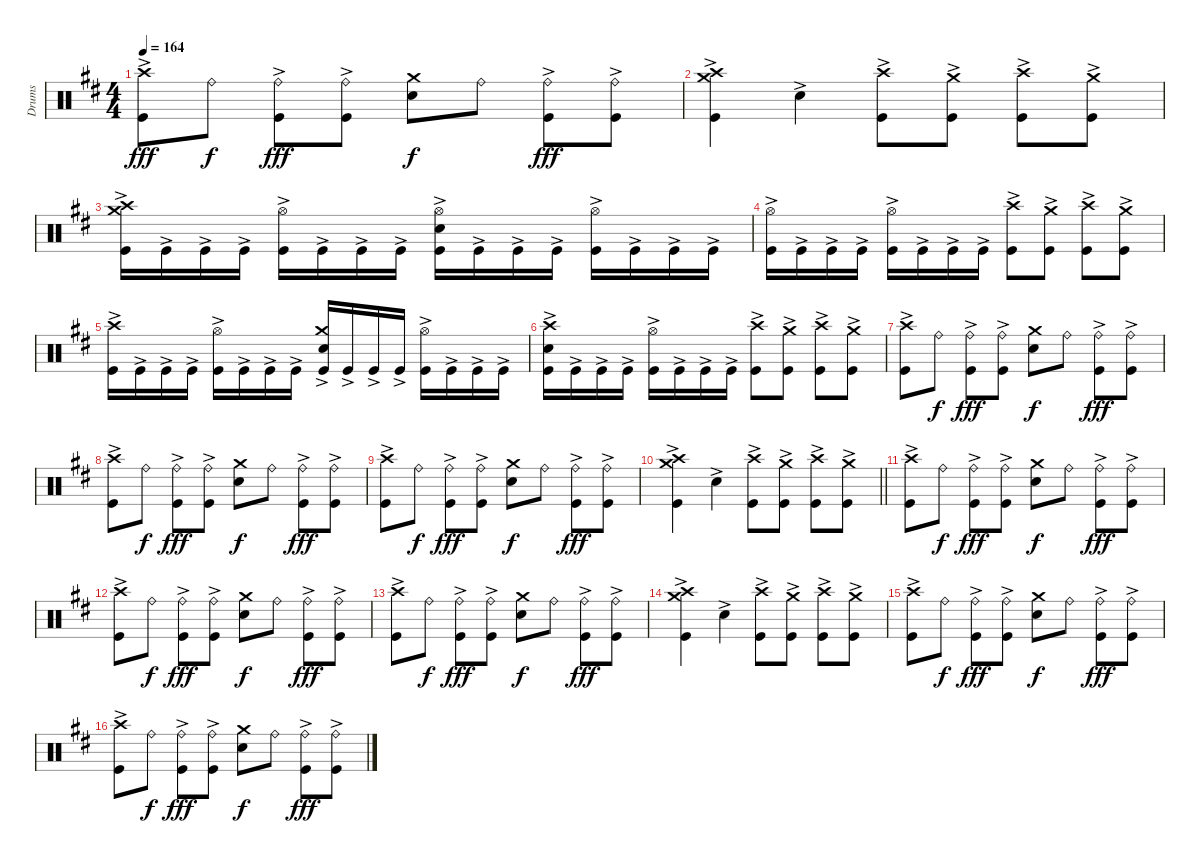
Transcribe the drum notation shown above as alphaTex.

\track ("Drums" "Drums") {instrument percussion}
\staff {score}
\articulation defaults
\ts (4 4)
\tempo 164
\clef neutral
\ks bminor
("Crash high (hit)" "Kick (hit)"{ac}).8{dy fff} "Ride (bell)".8{dy f} ("Ride (bell)" "Kick (hit)"{ac}).8{dy fff} ("Ride (bell)" "Kick (hit)"{ac}).8 ("Crash medium (hit)" "Snare (hit) 2").8{dy f} "Ride (bell)".8 ("Ride (bell)" "Kick (hit)"{ac}).8{dy fff} ("Ride (bell)" "Kick (hit)"{ac}).8 |
("Crash high (hit)" "Crash medium (hit)" "Kick (hit)"{ac}).4 "Snare (hit) 2"{ac}.4 ("Crash high (hit)" "Kick (hit)"{ac}).8 ("Crash medium (hit)" "Kick (hit)"{ac}).8 ("Crash high (hit)" "Kick (hit)"{ac}).8 ("Crash medium (hit)" "Kick (hit)"{ac}).8 |
("Crash high (hit)" "Crash medium (hit)" "Kick (hit)"{ac}).16 "Kick (hit)"{ac}.16 "Kick (hit)"{ac}.16 "Kick (hit)"{ac}.16 ("Hi-Hat (open)" "Kick (hit)"{ac}).16 "Kick (hit)"{ac}.16 "Kick (hit)"{ac}.16 "Kick (hit)"{ac}.16 ("Hi-Hat (open)" "Snare (hit) 2" "Kick (hit)"{ac}).16 "Kick (hit)"{ac}.16 "Kick (hit)"{ac}.16 "Kick (hit)"{ac}.16 ("Hi-Hat (open)" "Kick (hit)"{ac}).16 "Kick (hit)"{ac}.16 "Kick (hit)"{ac}.16 "Kick (hit)"{ac}.16 |
("Hi-Hat (open)" "Kick (hit)"{ac}).16 "Kick (hit)"{ac}.16 "Kick (hit)"{ac}.16 "Kick (hit)"{ac}.16 ("Hi-Hat (open)" "Kick (hit)"{ac}).16 "Kick (hit)"{ac}.16 "Kick (hit)"{ac}.16 "Kick (hit)"{ac}.16 ("Crash high (hit)" "Kick (hit)"{ac}).8 ("Crash medium (hit)" "Kick (hit)"{ac}).8 ("Crash high (hit)" "Kick (hit)"{ac}).8 ("Crash medium (hit)" "Kick (hit)"{ac}).8 |
("Crash high (hit)" "Kick (hit)"{ac}).16 "Kick (hit)"{ac}.16 "Kick (hit)"{ac}.16 "Kick (hit)"{ac}.16 ("Hi-Hat (open)" "Kick (hit)"{ac}).16 "Kick (hit)"{ac}.16 "Kick (hit)"{ac}.16 "Kick (hit)"{ac}.16 ("Crash medium (hit)" "Snare (hit) 2" "Kick (hit)"{ac}).16 "Kick (hit)"{ac}.16 "Kick (hit)"{ac}.16 "Kick (hit)"{ac}.16 ("Hi-Hat (open)" "Kick (hit)"{ac}).16 "Kick (hit)"{ac}.16 "Kick (hit)"{ac}.16 "Kick (hit)"{ac}.16 |
("Crash high (hit)" "Snare (hit) 2" "Kick (hit)"{ac}).16 "Kick (hit)"{ac}.16 "Kick (hit)"{ac}.16 "Kick (hit)"{ac}.16 ("Hi-Hat (open)" "Kick (hit)"{ac}).16 "Kick (hit)"{ac}.16 "Kick (hit)"{ac}.16 "Kick (hit)"{ac}.16 ("Crash high (hit)" "Kick (hit)"{ac}).8 ("Crash medium (hit)" "Kick (hit)"{ac}).8 ("Crash high (hit)" "Kick (hit)"{ac}).8 ("Crash medium (hit)" "Kick (hit)"{ac}).8 |
("Crash high (hit)" "Kick (hit)"{ac}).8 "Ride (bell)".8{dy f} ("Ride (bell)" "Kick (hit)"{ac}).8{dy fff} ("Ride (bell)" "Kick (hit)"{ac}).8 ("Crash medium (hit)" "Snare (hit) 2").8{dy f} "Ride (bell)".8 ("Ride (bell)" "Kick (hit)"{ac}).8{dy fff} ("Ride (bell)" "Kick (hit)"{ac}).8 |
("Crash high (hit)" "Kick (hit)"{ac}).8 "Ride (bell)".8{dy f} ("Ride (bell)" "Kick (hit)"{ac}).8{dy fff} ("Ride (bell)" "Kick (hit)"{ac}).8 ("Crash medium (hit)" "Snare (hit) 2").8{dy f} "Ride (bell)".8 ("Ride (bell)" "Kick (hit)"{ac}).8{dy fff} ("Ride (bell)" "Kick (hit)"{ac}).8 |
("Crash high (hit)" "Kick (hit)"{ac}).8 "Ride (bell)".8{dy f} ("Ride (bell)" "Kick (hit)"{ac}).8{dy fff} ("Ride (bell)" "Kick (hit)"{ac}).8 ("Crash medium (hit)" "Snare (hit) 2").8{dy f} "Ride (bell)".8 ("Ride (bell)" "Kick (hit)"{ac}).8{dy fff} ("Ride (bell)" "Kick (hit)"{ac}).8 |
\barLineRight lightlight
("Crash high (hit)" "Crash medium (hit)" "Kick (hit)"{ac}).4 "Snare (hit) 2"{ac}.4 ("Crash high (hit)" "Kick (hit)"{ac}).8 ("Crash medium (hit)" "Kick (hit)"{ac}).8 ("Crash high (hit)" "Kick (hit)"{ac}).8 ("Crash medium (hit)" "Kick (hit)"{ac}).8 |
("Crash high (hit)" "Kick (hit)"{ac}).8 "Ride (bell)".8{dy f} ("Ride (bell)" "Kick (hit)"{ac}).8{dy fff} ("Ride (bell)" "Kick (hit)"{ac}).8 ("Crash medium (hit)" "Snare (hit) 2").8{dy f} "Ride (bell)".8 ("Ride (bell)" "Kick (hit)"{ac}).8{dy fff} ("Ride (bell)" "Kick (hit)"{ac}).8 |
("Crash high (hit)" "Kick (hit)"{ac}).8 "Ride (bell)".8{dy f} ("Ride (bell)" "Kick (hit)"{ac}).8{dy fff} ("Ride (bell)" "Kick (hit)"{ac}).8 ("Crash medium (hit)" "Snare (hit) 2").8{dy f} "Ride (bell)".8 ("Ride (bell)" "Kick (hit)"{ac}).8{dy fff} ("Ride (bell)" "Kick (hit)"{ac}).8 |
("Crash high (hit)" "Kick (hit)"{ac}).8 "Ride (bell)".8{dy f} ("Ride (bell)" "Kick (hit)"{ac}).8{dy fff} ("Ride (bell)" "Kick (hit)"{ac}).8 ("Crash medium (hit)" "Snare (hit) 2").8{dy f} "Ride (bell)".8 ("Ride (bell)" "Kick (hit)"{ac}).8{dy fff} ("Ride (bell)" "Kick (hit)"{ac}).8 |
("Crash high (hit)" "Crash medium (hit)" "Kick (hit)"{ac}).4 "Snare (hit) 2"{ac}.4 ("Crash high (hit)" "Kick (hit)"{ac}).8 ("Crash medium (hit)" "Kick (hit)"{ac}).8 ("Crash high (hit)" "Kick (hit)"{ac}).8 ("Crash medium (hit)" "Kick (hit)"{ac}).8 |
("Crash high (hit)" "Kick (hit)"{ac}).8 "Ride (bell)".8{dy f} ("Ride (bell)" "Kick (hit)"{ac}).8{dy fff} ("Ride (bell)" "Kick (hit)"{ac}).8 ("Crash medium (hit)" "Snare (hit) 2").8{dy f} "Ride (bell)".8 ("Ride (bell)" "Kick (hit)"{ac}).8{dy fff} ("Ride (bell)" "Kick (hit)"{ac}).8 |
("Crash high (hit)" "Kick (hit)"{ac}).8 "Ride (bell)".8{dy f} ("Ride (bell)" "Kick (hit)"{ac}).8{dy fff} ("Ride (bell)" "Kick (hit)"{ac}).8 ("Crash medium (hit)" "Snare (hit) 2").8{dy f} "Ride (bell)".8 ("Ride (bell)" "Kick (hit)"{ac}).8{dy fff} ("Ride (bell)" "Kick (hit)"{ac}).8
